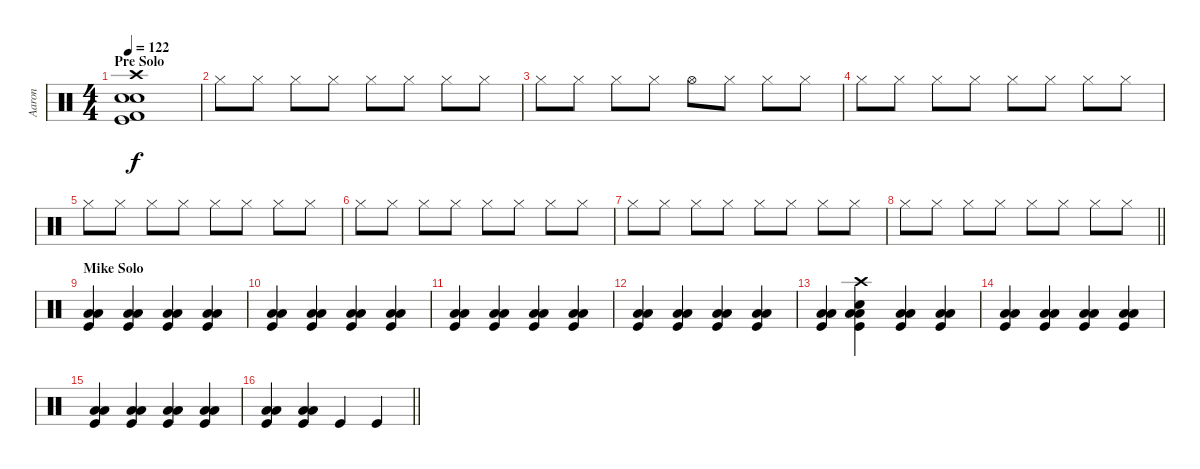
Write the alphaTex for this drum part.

\track ("Aaron" "Aaron") {instrument percussion}
\staff {score}
\articulation defaults
\ts (4 4)
\section ("" "Pre Solo")
\tempo 122
\clef neutral
\ks c
("Snare (hit) 2" "Kick (hit)" "Kick (hit) 2" "Crash high (hit)" "Electric Snare (hit)").1{dy f} |
"Hi-Hat (closed)".8 "Hi-Hat (closed)".8 "Hi-Hat (closed)".8 "Hi-Hat (closed)".8 "Hi-Hat (closed)".8 "Hi-Hat (closed)".8 "Hi-Hat (closed)".8 "Hi-Hat (closed)".8 |
"Hi-Hat (closed)".8 "Hi-Hat (closed)".8 "Hi-Hat (closed)".8 "Hi-Hat (closed)".8 "Hi-Hat (open)".8 "Hi-Hat (closed)".8 "Hi-Hat (closed)".8 "Hi-Hat (closed)".8 |
"Hi-Hat (closed)".8 "Hi-Hat (closed)".8 "Hi-Hat (closed)".8 "Hi-Hat (closed)".8 "Hi-Hat (closed)".8 "Hi-Hat (closed)".8 "Hi-Hat (closed)".8 "Hi-Hat (closed)".8 |
"Hi-Hat (closed)".8 "Hi-Hat (closed)".8 "Hi-Hat (closed)".8 "Hi-Hat (closed)".8 "Hi-Hat (closed)".8 "Hi-Hat (closed)".8 "Hi-Hat (closed)".8 "Hi-Hat (closed)".8 |
"Hi-Hat (closed)".8 "Hi-Hat (closed)".8 "Hi-Hat (closed)".8 "Hi-Hat (closed)".8 "Hi-Hat (closed)".8 "Hi-Hat (closed)".8 "Hi-Hat (closed)".8 "Hi-Hat (closed)".8 |
"Hi-Hat (closed)".8 "Hi-Hat (closed)".8 "Hi-Hat (closed)".8 "Hi-Hat (closed)".8 "Hi-Hat (closed)".8 "Hi-Hat (closed)".8 "Hi-Hat (closed)".8 "Hi-Hat (closed)".8 |
\barLineRight lightlight "Hi-Hat (closed)".8 "Hi-Hat (closed)".8 "Hi-Hat (closed)".8 "Hi-Hat (closed)".8 "Hi-Hat (closed)".8 "Hi-Hat (closed)".8 "Hi-Hat (closed)".8 "Hi-Hat (closed)".8
|
\section ("" "Mike Solo")
("Low Floor Tom (hit)" "Low Floor Tom (hit)" "Kick (hit)").4 ("Low Floor Tom (hit)" "Low Floor Tom (hit)" "Kick (hit)").4 ("Low Floor Tom (hit)" "Low Floor Tom (hit)" "Kick (hit)").4 ("Low Floor Tom (hit)" "Low Floor Tom (hit)" "Kick (hit)").4 |
("Low Floor Tom (hit)" "Low Floor Tom (hit)" "Kick (hit)").4 ("Low Floor Tom (hit)" "Low Floor Tom (hit)" "Kick (hit)").4 ("Low Floor Tom (hit)" "Low Floor Tom (hit)" "Kick (hit)").4 ("Low Floor Tom (hit)" "Low Floor Tom (hit)" "Kick (hit)").4 |
("Low Floor Tom (hit)" "Low Floor Tom (hit)" "Kick (hit)").4 ("Low Floor Tom (hit)" "Low Floor Tom (hit)" "Kick (hit)").4 ("Low Floor Tom (hit)" "Low Floor Tom (hit)" "Kick (hit)").4 ("Low Floor Tom (hit)" "Low Floor Tom (hit)" "Kick (hit)").4 |
("Low Floor Tom (hit)" "Low Floor Tom (hit)" "Kick (hit)").4 ("Low Floor Tom (hit)" "Low Floor Tom (hit)" "Kick (hit)").4 ("Low Floor Tom (hit)" "Low Floor Tom (hit)" "Kick (hit)").4 ("Low Floor Tom (hit)" "Low Floor Tom (hit)" "Kick (hit)").4 |
("Low Floor Tom (hit)" "Low Floor Tom (hit)" "Kick (hit)").4 ("Snare (hit) 2" "Low Floor Tom (hit)" "Low Floor Tom (hit)" "Kick (hit)" "Crash high (hit)").4 ("Low Floor Tom (hit)" "Low Floor Tom (hit)" "Kick (hit)").4 ("Low Floor Tom (hit)" "Low Floor Tom (hit)" "Kick (hit)").4 |
("Low Floor Tom (hit)" "Low Floor Tom (hit)" "Kick (hit)").4 ("Low Floor Tom (hit)" "Low Floor Tom (hit)" "Kick (hit)").4 ("Low Floor Tom (hit)" "Low Floor Tom (hit)" "Kick (hit)").4 ("Low Floor Tom (hit)" "Low Floor Tom (hit)" "Kick (hit)").4 |
("Low Floor Tom (hit)" "Low Floor Tom (hit)" "Kick (hit)").4 ("Low Floor Tom (hit)" "Low Floor Tom (hit)" "Kick (hit)").4 ("Low Floor Tom (hit)" "Low Floor Tom (hit)" "Kick (hit)").4 ("Low Floor Tom (hit)" "Low Floor Tom (hit)" "Kick (hit)").4 |
\barLineRight lightlight
("Low Floor Tom (hit)" "Low Floor Tom (hit)" "Kick (hit)").4 ("Low Floor Tom (hit)" "Low Floor Tom (hit)" "Kick (hit)").4 "Kick (hit)".4 "Kick (hit)".4
